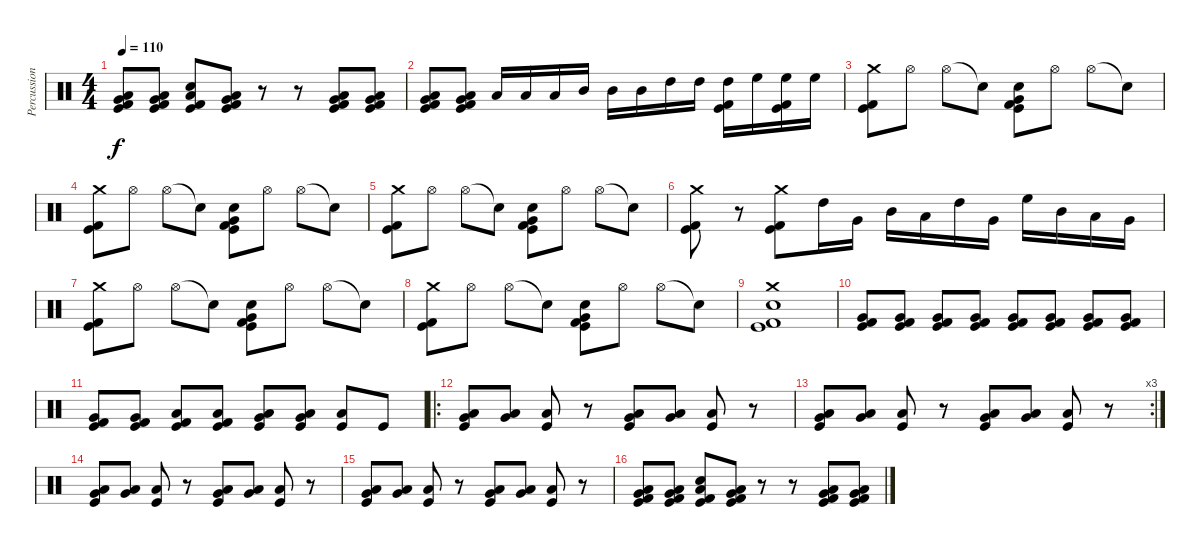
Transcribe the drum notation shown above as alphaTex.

\track ("Percussion" "Percussion") {instrument percussion}
\staff {score}
\articulation defaults
\ts (4 4)
\tempo 110
\clef neutral
\ks c
("Low Tom (hit)" "Very Low Tom (hit)" "Kick (hit) 2" "Kick (hit)").8{dy f} ("Low Tom (hit)" "Very Low Tom (hit)" "Kick (hit) 2" "Kick (hit)").8 ("Snare (hit) 2" "Low Tom (hit)" "Kick (hit) 2" "Kick (hit)").8 ("Low Tom (hit)" "Very Low Tom (hit)" "Kick (hit) 2" "Kick (hit)").8 r.8 r.8 ("Low Tom (hit)" "Very Low Tom (hit)" "Kick (hit) 2" "Kick (hit)").8 ("Low Tom (hit)" "Very Low Tom (hit)" "Kick (hit) 2" "Kick (hit)").8 |
("Low Tom (hit)" "Very Low Tom (hit)" "Kick (hit) 2" "Kick (hit)").8 ("Low Tom (hit)" "Very Low Tom (hit)" "Kick (hit) 2" "Kick (hit)").8 "Low Tom (hit)".16 "Low Tom (hit)".16 "Low Tom (hit)".16 "Mid Tom (hit)".16 "Mid Tom (hit)".16 "Mid Tom (hit)".16 "High Tom (hit)".16 "High Tom (hit)".16 ("High Tom (hit)" "Kick (hit) 2" "Kick (hit)").16 "High Floor Tom (hit)".16 ("High Floor Tom (hit)" "Kick (hit) 2" "Kick (hit)").16 "High Floor Tom (hit)".16 |
("Crash medium (hit)" "Kick (hit) 2" "Kick (hit)").8 "Hi-Hat (open)".8 "Hi-Hat (open)".8 "Snare (hit)"{t}.8 ("Very Low Tom (hit)" "Snare (hit) 2" "Kick (hit) 2" "Kick (hit)").8 "Hi-Hat (open)".8 "Hi-Hat (open)".8 "Snare (hit)"{t}.8 |
("Crash medium (hit)" "Kick (hit) 2" "Kick (hit)").8 "Hi-Hat (open)".8 "Hi-Hat (open)".8 "Snare (hit)"{t}.8 ("Very Low Tom (hit)" "Snare (hit) 2" "Kick (hit) 2" "Kick (hit)").8 "Hi-Hat (open)".8 "Hi-Hat (open)".8 "Snare (hit)"{t}.8 |
("Crash medium (hit)" "Kick (hit) 2" "Kick (hit)").8 "Hi-Hat (open)".8 "Hi-Hat (open)".8 "Snare (hit)"{t}.8 ("Very Low Tom (hit)" "Snare (hit) 2" "Kick (hit) 2" "Kick (hit)").8 "Hi-Hat (open)".8 "Hi-Hat (open)".8 "Snare (hit)"{t}.8 |
("Crash medium (hit)" "Kick (hit) 2" "Kick (hit)").8 r.8 ("Crash medium (hit)" "Kick (hit) 2" "Kick (hit)").8 "High Tom (hit)".16 "Very Low Tom (hit)".16 "Mid Tom (hit)".16 "Low Tom (hit)".16 "High Tom (hit)".16 "Very Low Tom (hit)".16 "High Floor Tom (hit)".16 "Mid Tom (hit)".16 "Low Tom (hit)".16 "Very Low Tom (hit)".16 |
("Crash medium (hit)" "Kick (hit) 2" "Kick (hit)").8 "Hi-Hat (open)".8 "Hi-Hat (open)".8 "Snare (hit)"{t}.8 ("Very Low Tom (hit)" "Snare (hit) 2" "Kick (hit) 2" "Kick (hit)").8 "Hi-Hat (open)".8 "Hi-Hat (open)".8 "Snare (hit)"{t}.8 |
("Crash medium (hit)" "Kick (hit) 2" "Kick (hit)").8 "Hi-Hat (open)".8 "Hi-Hat (open)".8 "Snare (hit)"{t}.8 ("Very Low Tom (hit)" "Snare (hit) 2" "Kick (hit) 2" "Kick (hit)").8 "Hi-Hat (open)".8 "Hi-Hat (open)".8 "Snare (hit)"{t}.8 |
("Crash medium (hit)" "Snare (hit) 2" "Kick (hit) 2" "Kick (hit)").1 |
("Very Low Tom (hit)" "Kick (hit) 2" "Kick (hit)").8 ("Very Low Tom (hit)" "Kick (hit) 2" "Kick (hit)").8 ("Very Low Tom (hit)" "Kick (hit) 2" "Kick (hit)").8 ("Very Low Tom (hit)" "Kick (hit) 2" "Kick (hit)").8 ("Very Low Tom (hit)" "Kick (hit) 2" "Kick (hit)").8 ("Very Low Tom (hit)" "Kick (hit) 2" "Kick (hit)").8 ("Very Low Tom (hit)" "Kick (hit) 2" "Kick (hit)").8 ("Very Low Tom (hit)" "Kick (hit) 2" "Kick (hit)").8 |
("Very Low Tom (hit)" "Kick (hit) 2" "Kick (hit)").8 ("Very Low Tom (hit)" "Kick (hit) 2" "Kick (hit)").8 ("Low Tom (hit)" "Kick (hit) 2" "Kick (hit)").8 ("Low Tom (hit)" "Kick (hit) 2" "Kick (hit)").8 ("Low Tom (hit)" "Very Low Tom (hit)" "Kick (hit)").8 ("Low Tom (hit)" "Very Low Tom (hit)" "Kick (hit)").8 ("Low Floor Tom (hit)" "Kick (hit)").8 "Kick (hit)".8 |
\ro
("Low Tom (hit)" "Very Low Tom (hit)" "Kick (hit)").8 ("Low Tom (hit)" "Very Low Tom (hit)").8 ("Low Floor Tom (hit)" "Kick (hit)").8 r.8 ("Low Tom (hit)" "Very Low Tom (hit)" "Kick (hit)").8 ("Low Tom (hit)" "Very Low Tom (hit)").8 ("Low Floor Tom (hit)" "Kick (hit)").8 r.8 |
\rc 3
("Low Tom (hit)" "Very Low Tom (hit)" "Kick (hit)").8 ("Low Tom (hit)" "Very Low Tom (hit)").8 ("Low Floor Tom (hit)" "Kick (hit)").8 r.8 ("Low Tom (hit)" "Very Low Tom (hit)" "Kick (hit)").8 ("Low Tom (hit)" "Very Low Tom (hit)").8 ("Low Floor Tom (hit)" "Kick (hit)").8 r.8 |
("Low Tom (hit)" "Very Low Tom (hit)" "Kick (hit)").8 ("Low Tom (hit)" "Very Low Tom (hit)").8 ("Low Floor Tom (hit)" "Kick (hit)").8 r.8 ("Low Tom (hit)" "Very Low Tom (hit)" "Kick (hit)").8 ("Low Tom (hit)" "Very Low Tom (hit)").8 ("Low Floor Tom (hit)" "Kick (hit)").8 r.8 |
("Low Tom (hit)" "Very Low Tom (hit)" "Kick (hit)").8 ("Low Tom (hit)" "Very Low Tom (hit)").8 ("Low Floor Tom (hit)" "Kick (hit)").8 r.8 ("Low Tom (hit)" "Very Low Tom (hit)" "Kick (hit)").8 ("Low Tom (hit)" "Very Low Tom (hit)").8 ("Low Floor Tom (hit)" "Kick (hit)").8 r.8 |
("Low Tom (hit)" "Very Low Tom (hit)" "Kick (hit) 2" "Kick (hit)").8 ("Low Tom (hit)" "Very Low Tom (hit)" "Kick (hit) 2" "Kick (hit)").8 ("Snare (hit) 2" "Low Tom (hit)" "Kick (hit) 2" "Kick (hit)").8 ("Low Tom (hit)" "Very Low Tom (hit)" "Kick (hit) 2" "Kick (hit)").8 r.8 r.8 ("Low Tom (hit)" "Very Low Tom (hit)" "Kick (hit) 2" "Kick (hit)").8 ("Low Tom (hit)" "Very Low Tom (hit)" "Kick (hit) 2" "Kick (hit)").8
